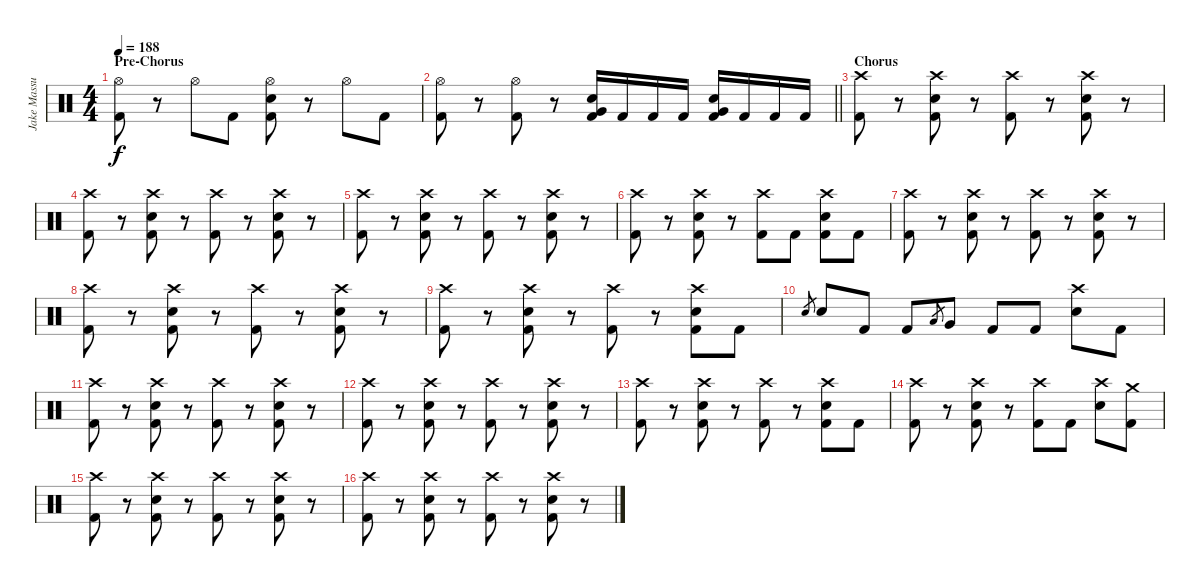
\track ("Jake Massucco" "Jake Massu") {instrument percussion}
\staff {score}
\articulation defaults
\ts (4 4)
\section ("" "Pre-Chorus")
\tempo 188
\clef neutral
\ks c
("Hi-Hat (open)" "Kick (hit) 2").8{dy f} r.8 "Hi-Hat (open)".8 "Kick (hit) 2".8 ("Hi-Hat (open)" "Electric Snare (hit)" "Kick (hit) 2").8 r.8 "Hi-Hat (open)".8 "Kick (hit) 2".8 |
\barLineRight lightlight
("Hi-Hat (open)" "Kick (hit) 2").8 r.8 ("Hi-Hat (open)" "Kick (hit) 2").8 r.8 ("Very Low Tom (hit)" "Electric Snare (hit)" "Kick (hit) 2").16 "Kick (hit) 2".16 "Kick (hit) 2".16 "Kick (hit) 2".16 ("Very Low Tom (hit)" "Electric Snare (hit)" "Kick (hit) 2").16 "Kick (hit) 2".16 "Kick (hit) 2".16 "Kick (hit) 2".16 |
\section ("" "Chorus")
("Crash high (hit)" "Kick (hit) 2").8 r.8 ("Crash high (hit)" "Electric Snare (hit)" "Kick (hit) 2").8 r.8 ("Crash high (hit)" "Kick (hit) 2").8 r.8 ("Crash high (hit)" "Electric Snare (hit)" "Kick (hit) 2").8 r.8 |
("Crash high (hit)" "Kick (hit) 2").8 r.8 ("Crash high (hit)" "Electric Snare (hit)" "Kick (hit) 2").8 r.8 ("Crash high (hit)" "Kick (hit) 2").8 r.8 ("Crash high (hit)" "Electric Snare (hit)" "Kick (hit) 2").8 r.8 |
("Crash high (hit)" "Kick (hit) 2").8 r.8 ("Crash high (hit)" "Electric Snare (hit)" "Kick (hit) 2").8 r.8 ("Crash high (hit)" "Kick (hit) 2").8 r.8 ("Crash high (hit)" "Electric Snare (hit)" "Kick (hit) 2").8 r.8 |
("Crash high (hit)" "Kick (hit) 2").8 r.8 ("Crash high (hit)" "Electric Snare (hit)" "Kick (hit) 2").8 r.8 ("Crash high (hit)" "Kick (hit) 2").8 "Kick (hit) 2".8 ("Crash high (hit)" "Electric Snare (hit)" "Kick (hit) 2").8 "Kick (hit) 2".8 |
("Crash high (hit)" "Kick (hit) 2").8 r.8 ("Crash high (hit)" "Electric Snare (hit)" "Kick (hit) 2").8 r.8 ("Crash high (hit)" "Kick (hit) 2").8 r.8 ("Crash high (hit)" "Electric Snare (hit)" "Kick (hit) 2").8 r.8 |
("Crash high (hit)" "Kick (hit) 2").8 r.8 ("Crash high (hit)" "Electric Snare (hit)" "Kick (hit) 2").8 r.8 ("Crash high (hit)" "Kick (hit) 2").8 r.8 ("Crash high (hit)" "Electric Snare (hit)" "Kick (hit) 2").8 r.8 |
("Crash high (hit)" "Kick (hit) 2").8 r.8 ("Crash high (hit)" "Electric Snare (hit)" "Kick (hit) 2").8 r.8 ("Crash high (hit)" "Kick (hit) 2").8 r.8 ("Crash high (hit)" "Electric Snare (hit)" "Kick (hit) 2").8 "Kick (hit) 2".8 |
"Electric Snare (hit)".8{gr} "Electric Snare (hit)".8 "Kick (hit) 2".8 "Kick (hit) 2".8 "Low Floor Tom (hit)".8{gr} "Very Low Tom (hit)".8 "Kick (hit) 2".8 "Kick (hit) 2".8 ("Crash high (hit)" "Electric Snare (hit)").8 "Kick (hit) 2".8 |
("Crash high (hit)" "Kick (hit) 2").8 r.8 ("Crash high (hit)" "Electric Snare (hit)" "Kick (hit) 2").8 r.8 ("Crash high (hit)" "Kick (hit) 2").8 r.8 ("Crash high (hit)" "Electric Snare (hit)" "Kick (hit) 2").8 r.8 |
("Crash high (hit)" "Kick (hit) 2").8 r.8 ("Crash high (hit)" "Electric Snare (hit)" "Kick (hit) 2").8 r.8 ("Crash high (hit)" "Kick (hit) 2").8 r.8 ("Crash high (hit)" "Electric Snare (hit)" "Kick (hit) 2").8 r.8 |
("Crash high (hit)" "Kick (hit) 2").8 r.8 ("Crash high (hit)" "Electric Snare (hit)" "Kick (hit) 2").8 r.8 ("Crash high (hit)" "Kick (hit) 2").8 r.8 ("Crash high (hit)" "Electric Snare (hit)" "Kick (hit) 2").8 "Kick (hit) 2".8 |
("Crash high (hit)" "Kick (hit) 2").8 r.8 ("Crash high (hit)" "Electric Snare (hit)" "Kick (hit) 2").8 r.8 ("Crash high (hit)" "Kick (hit) 2").8 "Kick (hit) 2".8 ("Crash high (hit)" "Electric Snare (hit)").8 ("Crash medium (hit)" "Kick (hit) 2").8 |
("Crash high (hit)" "Kick (hit) 2").8 r.8 ("Crash high (hit)" "Electric Snare (hit)" "Kick (hit) 2").8 r.8 ("Crash high (hit)" "Kick (hit) 2").8 r.8 ("Crash high (hit)" "Electric Snare (hit)" "Kick (hit) 2").8 r.8 |
("Crash high (hit)" "Kick (hit) 2").8 r.8 ("Crash high (hit)" "Electric Snare (hit)" "Kick (hit) 2").8 r.8 ("Crash high (hit)" "Kick (hit) 2").8 r.8 ("Crash high (hit)" "Electric Snare (hit)" "Kick (hit) 2").8 r.8
